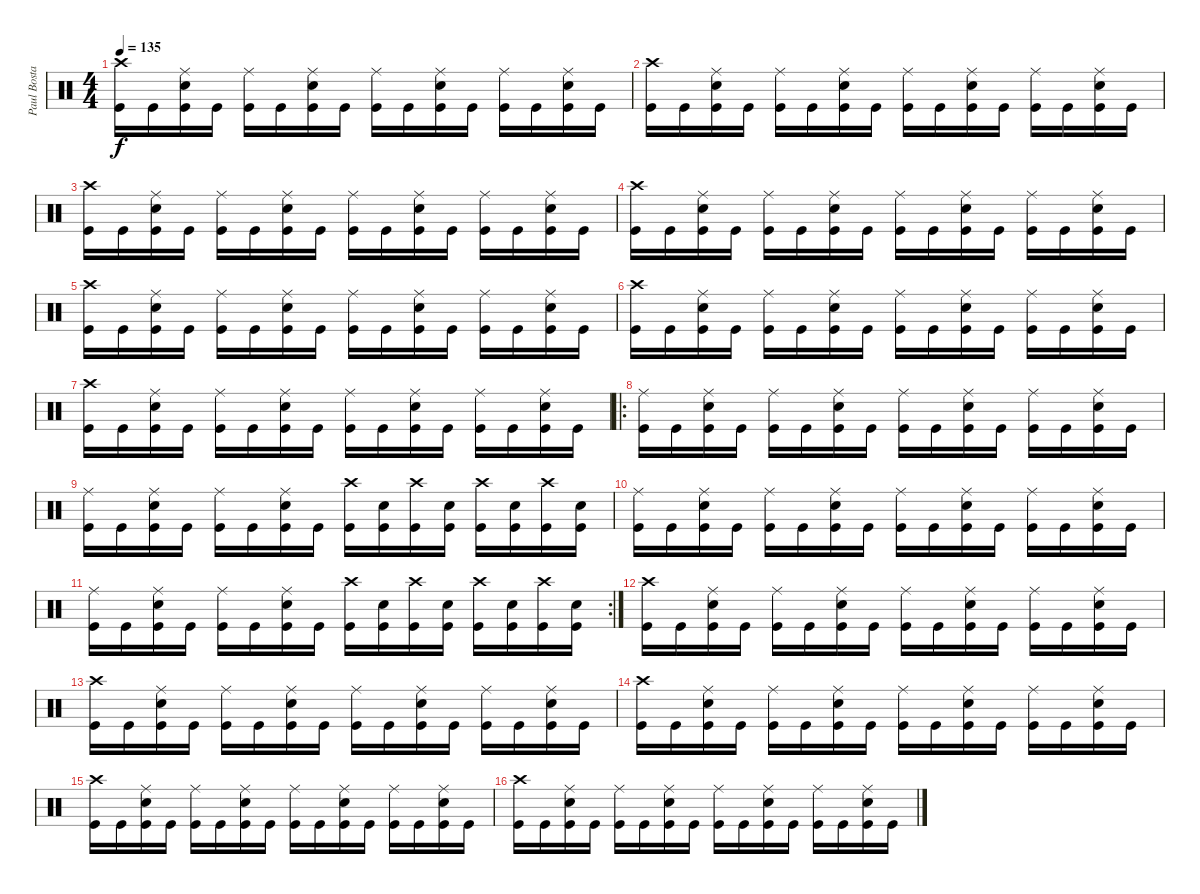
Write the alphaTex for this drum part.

\track ("Paul Bostaph" "Paul Bosta") {instrument percussion}
\staff {score}
\articulation defaults
\ts (4 4)
\tempo 135
\clef neutral
\ks c
("Crash high (hit)" "Kick (hit)").16{dy f} "Kick (hit)".16 ("Ride (middle)" "Snare (hit) 2" "Kick (hit)").16 "Kick (hit)".16 ("Ride (middle)" "Kick (hit)").16 "Kick (hit)".16 ("Ride (middle)" "Snare (hit) 2" "Kick (hit)").16 "Kick (hit)".16 ("Ride (middle)" "Kick (hit)").16 "Kick (hit)".16 ("Ride (middle)" "Snare (hit) 2" "Kick (hit)").16 "Kick (hit)".16 ("Ride (middle)" "Kick (hit)").16 "Kick (hit)".16 ("Ride (middle)" "Snare (hit) 2" "Kick (hit)").16 "Kick (hit)".16 |
("Crash high (hit)" "Kick (hit)").16 "Kick (hit)".16 ("Ride (middle)" "Snare (hit) 2" "Kick (hit)").16 "Kick (hit)".16 ("Ride (middle)" "Kick (hit)").16 "Kick (hit)".16 ("Ride (middle)" "Snare (hit) 2" "Kick (hit)").16 "Kick (hit)".16 ("Ride (middle)" "Kick (hit)").16 "Kick (hit)".16 ("Ride (middle)" "Snare (hit) 2" "Kick (hit)").16 "Kick (hit)".16 ("Ride (middle)" "Kick (hit)").16 "Kick (hit)".16 ("Ride (middle)" "Snare (hit) 2" "Kick (hit)").16 "Kick (hit)".16 |
("Crash high (hit)" "Kick (hit)").16 "Kick (hit)".16 ("Ride (middle)" "Snare (hit) 2" "Kick (hit)").16 "Kick (hit)".16 ("Ride (middle)" "Kick (hit)").16 "Kick (hit)".16 ("Ride (middle)" "Snare (hit) 2" "Kick (hit)").16 "Kick (hit)".16 ("Ride (middle)" "Kick (hit)").16 "Kick (hit)".16 ("Ride (middle)" "Snare (hit) 2" "Kick (hit)").16 "Kick (hit)".16 ("Ride (middle)" "Kick (hit)").16 "Kick (hit)".16 ("Ride (middle)" "Snare (hit) 2" "Kick (hit)").16 "Kick (hit)".16 |
("Crash high (hit)" "Kick (hit)").16 "Kick (hit)".16 ("Ride (middle)" "Snare (hit) 2" "Kick (hit)").16 "Kick (hit)".16 ("Ride (middle)" "Kick (hit)").16 "Kick (hit)".16 ("Ride (middle)" "Snare (hit) 2" "Kick (hit)").16 "Kick (hit)".16 ("Ride (middle)" "Kick (hit)").16 "Kick (hit)".16 ("Ride (middle)" "Snare (hit) 2" "Kick (hit)").16 "Kick (hit)".16 ("Ride (middle)" "Kick (hit)").16 "Kick (hit)".16 ("Ride (middle)" "Snare (hit) 2" "Kick (hit)").16 "Kick (hit)".16 |
("Crash high (hit)" "Kick (hit)").16 "Kick (hit)".16 ("Ride (middle)" "Snare (hit) 2" "Kick (hit)").16 "Kick (hit)".16 ("Ride (middle)" "Kick (hit)").16 "Kick (hit)".16 ("Ride (middle)" "Snare (hit) 2" "Kick (hit)").16 "Kick (hit)".16 ("Ride (middle)" "Kick (hit)").16 "Kick (hit)".16 ("Ride (middle)" "Snare (hit) 2" "Kick (hit)").16 "Kick (hit)".16 ("Ride (middle)" "Kick (hit)").16 "Kick (hit)".16 ("Ride (middle)" "Snare (hit) 2" "Kick (hit)").16 "Kick (hit)".16 |
("Crash high (hit)" "Kick (hit)").16 "Kick (hit)".16 ("Ride (middle)" "Snare (hit) 2" "Kick (hit)").16 "Kick (hit)".16 ("Ride (middle)" "Kick (hit)").16 "Kick (hit)".16 ("Ride (middle)" "Snare (hit) 2" "Kick (hit)").16 "Kick (hit)".16 ("Ride (middle)" "Kick (hit)").16 "Kick (hit)".16 ("Ride (middle)" "Snare (hit) 2" "Kick (hit)").16 "Kick (hit)".16 ("Ride (middle)" "Kick (hit)").16 "Kick (hit)".16 ("Ride (middle)" "Snare (hit) 2" "Kick (hit)").16 "Kick (hit)".16 |
("Crash high (hit)" "Kick (hit)").16 "Kick (hit)".16 ("Ride (middle)" "Snare (hit) 2" "Kick (hit)").16 "Kick (hit)".16 ("Ride (middle)" "Kick (hit)").16 "Kick (hit)".16 ("Ride (middle)" "Snare (hit) 2" "Kick (hit)").16 "Kick (hit)".16 ("Ride (middle)" "Kick (hit)").16 "Kick (hit)".16 ("Ride (middle)" "Snare (hit) 2" "Kick (hit)").16 "Kick (hit)".16 ("Ride (middle)" "Kick (hit)").16 "Kick (hit)".16 ("Ride (middle)" "Snare (hit) 2" "Kick (hit)").16 "Kick (hit)".16 |
\ro
("Ride (middle)" "Kick (hit)").16 "Kick (hit)".16 ("Ride (middle)" "Snare (hit) 2" "Kick (hit)").16 "Kick (hit)".16 ("Ride (middle)" "Kick (hit)").16 "Kick (hit)".16 ("Ride (middle)" "Snare (hit) 2" "Kick (hit)").16 "Kick (hit)".16 ("Ride (middle)" "Kick (hit)").16 "Kick (hit)".16 ("Ride (middle)" "Snare (hit) 2" "Kick (hit)").16 "Kick (hit)".16 ("Ride (middle)" "Kick (hit)").16 "Kick (hit)".16 ("Ride (middle)" "Snare (hit) 2" "Kick (hit)").16 "Kick (hit)".16 |
("Ride (middle)" "Kick (hit)").16 "Kick (hit)".16 ("Ride (middle)" "Snare (hit) 2" "Kick (hit)").16 "Kick (hit)".16 ("Ride (middle)" "Kick (hit)").16 "Kick (hit)".16 ("Ride (middle)" "Snare (hit) 2" "Kick (hit)").16 "Kick (hit)".16 ("Crash high (hit)" "Kick (hit)").16 ("Snare (hit) 2" "Kick (hit)").16 ("Crash high (hit)" "Kick (hit)").16 ("Snare (hit) 2" "Kick (hit)").16 ("Crash high (hit)" "Kick (hit)").16 ("Snare (hit) 2" "Kick (hit)").16 ("Crash high (hit)" "Kick (hit)").16 ("Snare (hit) 2" "Kick (hit)").16 |
("Ride (middle)" "Kick (hit)").16 "Kick (hit)".16 ("Ride (middle)" "Snare (hit) 2" "Kick (hit)").16 "Kick (hit)".16 ("Ride (middle)" "Kick (hit)").16 "Kick (hit)".16 ("Ride (middle)" "Snare (hit) 2" "Kick (hit)").16 "Kick (hit)".16 ("Ride (middle)" "Kick (hit)").16 "Kick (hit)".16 ("Ride (middle)" "Snare (hit) 2" "Kick (hit)").16 "Kick (hit)".16 ("Ride (middle)" "Kick (hit)").16 "Kick (hit)".16 ("Ride (middle)" "Snare (hit) 2" "Kick (hit)").16 "Kick (hit)".16 |
\rc 2
("Ride (middle)" "Kick (hit)").16 "Kick (hit)".16 ("Ride (middle)" "Snare (hit) 2" "Kick (hit)").16 "Kick (hit)".16 ("Ride (middle)" "Kick (hit)").16 "Kick (hit)".16 ("Ride (middle)" "Snare (hit) 2" "Kick (hit)").16 "Kick (hit)".16 ("Crash high (hit)" "Kick (hit)").16 ("Snare (hit) 2" "Kick (hit)").16 ("Crash high (hit)" "Kick (hit)").16 ("Snare (hit) 2" "Kick (hit)").16 ("Crash high (hit)" "Kick (hit)").16 ("Snare (hit) 2" "Kick (hit)").16 ("Crash high (hit)" "Kick (hit)").16 ("Snare (hit) 2" "Kick (hit)").16 |
("Crash high (hit)" "Kick (hit)").16 "Kick (hit)".16 ("Ride (middle)" "Snare (hit) 2" "Kick (hit)").16 "Kick (hit)".16 ("Ride (middle)" "Kick (hit)").16 "Kick (hit)".16 ("Ride (middle)" "Snare (hit) 2" "Kick (hit)").16 "Kick (hit)".16 ("Ride (middle)" "Kick (hit)").16 "Kick (hit)".16 ("Ride (middle)" "Snare (hit) 2" "Kick (hit)").16 "Kick (hit)".16 ("Ride (middle)" "Kick (hit)").16 "Kick (hit)".16 ("Ride (middle)" "Snare (hit) 2" "Kick (hit)").16 "Kick (hit)".16 |
("Crash high (hit)" "Kick (hit)").16 "Kick (hit)".16 ("Ride (middle)" "Snare (hit) 2" "Kick (hit)").16 "Kick (hit)".16 ("Ride (middle)" "Kick (hit)").16 "Kick (hit)".16 ("Ride (middle)" "Snare (hit) 2" "Kick (hit)").16 "Kick (hit)".16 ("Ride (middle)" "Kick (hit)").16 "Kick (hit)".16 ("Ride (middle)" "Snare (hit) 2" "Kick (hit)").16 "Kick (hit)".16 ("Ride (middle)" "Kick (hit)").16 "Kick (hit)".16 ("Ride (middle)" "Snare (hit) 2" "Kick (hit)").16 "Kick (hit)".16 |
("Crash high (hit)" "Kick (hit)").16 "Kick (hit)".16 ("Ride (middle)" "Snare (hit) 2" "Kick (hit)").16 "Kick (hit)".16 ("Ride (middle)" "Kick (hit)").16 "Kick (hit)".16 ("Ride (middle)" "Snare (hit) 2" "Kick (hit)").16 "Kick (hit)".16 ("Ride (middle)" "Kick (hit)").16 "Kick (hit)".16 ("Ride (middle)" "Snare (hit) 2" "Kick (hit)").16 "Kick (hit)".16 ("Ride (middle)" "Kick (hit)").16 "Kick (hit)".16 ("Ride (middle)" "Snare (hit) 2" "Kick (hit)").16 "Kick (hit)".16 |
("Crash high (hit)" "Kick (hit)").16 "Kick (hit)".16 ("Ride (middle)" "Snare (hit) 2" "Kick (hit)").16 "Kick (hit)".16 ("Ride (middle)" "Kick (hit)").16 "Kick (hit)".16 ("Ride (middle)" "Snare (hit) 2" "Kick (hit)").16 "Kick (hit)".16 ("Ride (middle)" "Kick (hit)").16 "Kick (hit)".16 ("Ride (middle)" "Snare (hit) 2" "Kick (hit)").16 "Kick (hit)".16 ("Ride (middle)" "Kick (hit)").16 "Kick (hit)".16 ("Ride (middle)" "Snare (hit) 2" "Kick (hit)").16 "Kick (hit)".16 |
("Crash high (hit)" "Kick (hit)").16 "Kick (hit)".16 ("Ride (middle)" "Snare (hit) 2" "Kick (hit)").16 "Kick (hit)".16 ("Ride (middle)" "Kick (hit)").16 "Kick (hit)".16 ("Ride (middle)" "Snare (hit) 2" "Kick (hit)").16 "Kick (hit)".16 ("Ride (middle)" "Kick (hit)").16 "Kick (hit)".16 ("Ride (middle)" "Snare (hit) 2" "Kick (hit)").16 "Kick (hit)".16 ("Ride (middle)" "Kick (hit)").16 "Kick (hit)".16 ("Ride (middle)" "Snare (hit) 2" "Kick (hit)").16 "Kick (hit)".16
